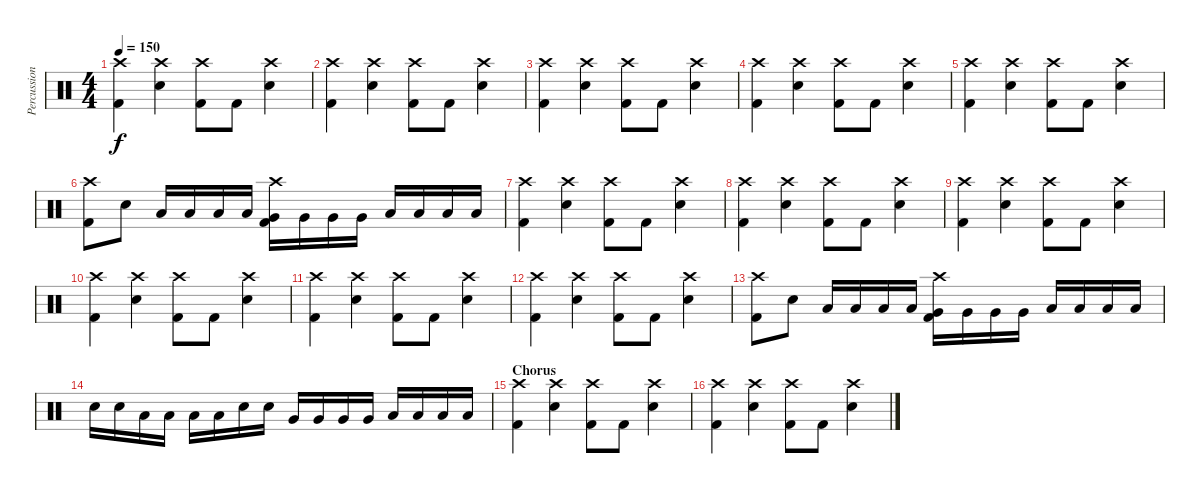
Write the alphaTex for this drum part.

\track ("Percussion" "Percussion") {instrument percussion}
\staff {score}
\articulation defaults
\ts (4 4)
\tempo 150
\clef neutral
\ks c
("Crash high (hit)" "Kick (hit) 2").4{dy f} ("Crash high (hit)" "Electric Snare (hit)").4 ("Crash high (hit)" "Kick (hit) 2").8 "Kick (hit) 2".8 ("Crash high (hit)" "Electric Snare (hit)").4 |
("Crash high (hit)" "Kick (hit) 2").4 ("Crash high (hit)" "Electric Snare (hit)").4 ("Crash high (hit)" "Kick (hit) 2").8 "Kick (hit) 2".8 ("Crash high (hit)" "Electric Snare (hit)").4 |
("Crash high (hit)" "Kick (hit) 2").4 ("Crash high (hit)" "Electric Snare (hit)").4 ("Crash high (hit)" "Kick (hit) 2").8 "Kick (hit) 2".8 ("Crash high (hit)" "Electric Snare (hit)").4 |
("Crash high (hit)" "Kick (hit) 2").4 ("Crash high (hit)" "Electric Snare (hit)").4 ("Crash high (hit)" "Kick (hit) 2").8 "Kick (hit) 2".8 ("Crash high (hit)" "Electric Snare (hit)").4 |
("Crash high (hit)" "Kick (hit) 2").4 ("Crash high (hit)" "Electric Snare (hit)").4 ("Crash high (hit)" "Kick (hit) 2").8 "Kick (hit) 2".8 ("Crash high (hit)" "Electric Snare (hit)").4 |
("Crash high (hit)" "Kick (hit) 2").8 "Electric Snare (hit)".8 "Low Tom (hit)".16 "Low Tom (hit)".16 "Low Tom (hit)".16 "Low Tom (hit)".16 ("Crash high (hit)" "Very Low Tom (hit)" "Kick (hit) 2").16 "Very Low Tom (hit)".16 "Very Low Tom (hit)".16 "Very Low Tom (hit)".16 "Low Floor Tom (hit)".16 "Low Floor Tom (hit)".16 "Low Floor Tom (hit)".16 "Low Floor Tom (hit)".16 |
("Crash high (hit)" "Kick (hit) 2").4 ("Crash high (hit)" "Electric Snare (hit)").4 ("Crash high (hit)" "Kick (hit) 2").8 "Kick (hit) 2".8 ("Crash high (hit)" "Electric Snare (hit)").4 |
("Crash high (hit)" "Kick (hit) 2").4 ("Crash high (hit)" "Electric Snare (hit)").4 ("Crash high (hit)" "Kick (hit) 2").8 "Kick (hit) 2".8 ("Crash high (hit)" "Electric Snare (hit)").4 |
("Crash high (hit)" "Kick (hit) 2").4 ("Crash high (hit)" "Electric Snare (hit)").4 ("Crash high (hit)" "Kick (hit) 2").8 "Kick (hit) 2".8 ("Crash high (hit)" "Electric Snare (hit)").4 |
("Crash high (hit)" "Kick (hit) 2").4 ("Crash high (hit)" "Electric Snare (hit)").4 ("Crash high (hit)" "Kick (hit) 2").8 "Kick (hit) 2".8 ("Crash high (hit)" "Electric Snare (hit)").4 |
("Crash high (hit)" "Kick (hit) 2").4 ("Crash high (hit)" "Electric Snare (hit)").4 ("Crash high (hit)" "Kick (hit) 2").8 "Kick (hit) 2".8 ("Crash high (hit)" "Electric Snare (hit)").4 |
("Crash high (hit)" "Kick (hit) 2").4 ("Crash high (hit)" "Electric Snare (hit)").4 ("Crash high (hit)" "Kick (hit) 2").8 "Kick (hit) 2".8 ("Crash high (hit)" "Electric Snare (hit)").4 |
("Crash high (hit)" "Kick (hit) 2").8 "Electric Snare (hit)".8 "Low Tom (hit)".16 "Low Tom (hit)".16 "Low Tom (hit)".16 "Low Tom (hit)".16 ("Crash high (hit)" "Very Low Tom (hit)" "Kick (hit) 2").16 "Very Low Tom (hit)".16 "Very Low Tom (hit)".16 "Very Low Tom (hit)".16 "Low Floor Tom (hit)".16 "Low Floor Tom (hit)".16 "Low Floor Tom (hit)".16 "Low Floor Tom (hit)".16 |
"Electric Snare (hit)".16 "Electric Snare (hit)".16 "Low Tom (hit)".16 "Low Tom (hit)".16 "Low Tom (hit)".16 "Low Tom (hit)".16 "Electric Snare (hit)".16 "Electric Snare (hit)".16 "Very Low Tom (hit)".16 "Very Low Tom (hit)".16 "Very Low Tom (hit)".16 "Very Low Tom (hit)".16 "Low Floor Tom (hit)".16 "Low Floor Tom (hit)".16 "Low Floor Tom (hit)".16 "Low Floor Tom (hit)".16 |
\section ("" "Chorus")
("Crash high (hit)" "Kick (hit) 2").4 ("Crash high (hit)" "Electric Snare (hit)").4 ("Crash high (hit)" "Kick (hit) 2").8 "Kick (hit) 2".8 ("Crash high (hit)" "Electric Snare (hit)").4 |
("Crash high (hit)" "Kick (hit) 2").4 ("Crash high (hit)" "Electric Snare (hit)").4 ("Crash high (hit)" "Kick (hit) 2").8 "Kick (hit) 2".8 ("Crash high (hit)" "Electric Snare (hit)").4
